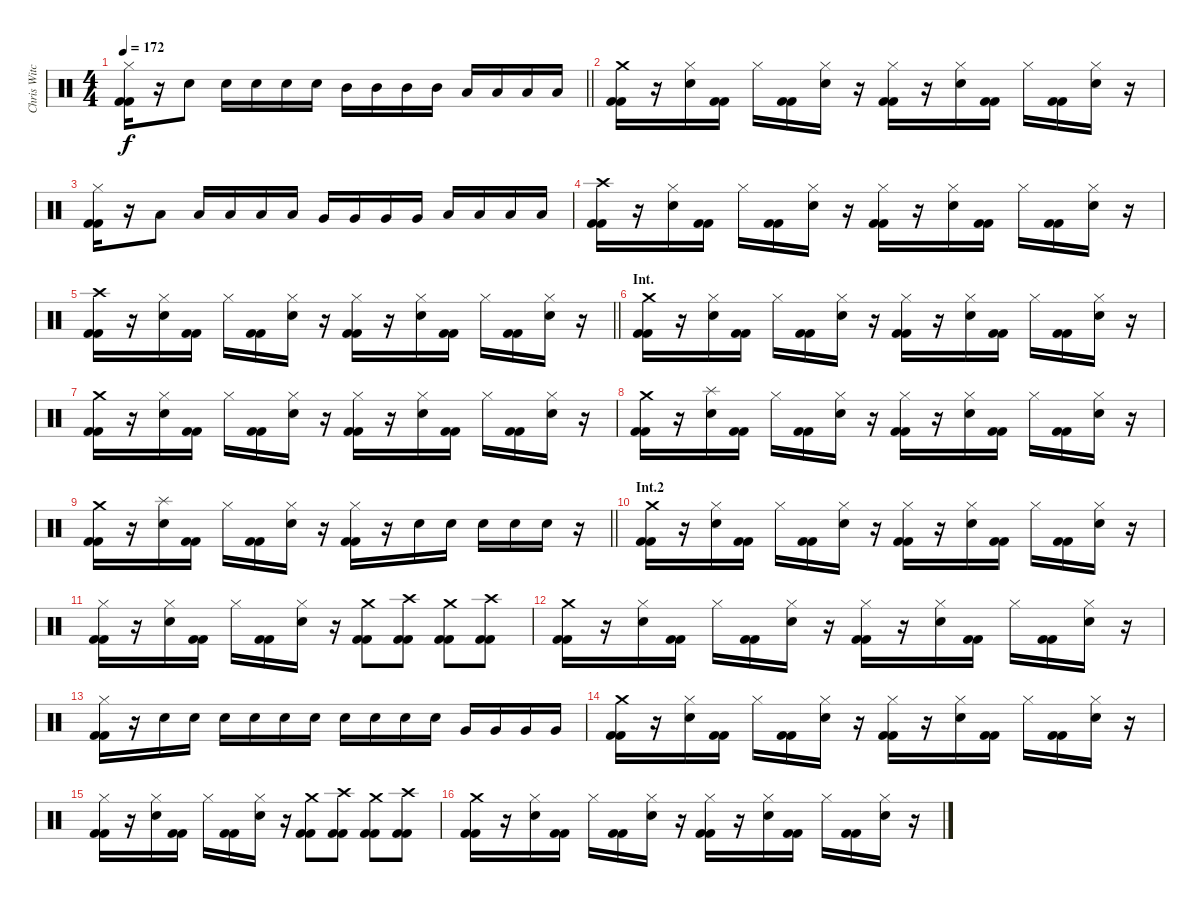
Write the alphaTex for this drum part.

\track ("Chris Witchhunter" "Chris Witc") {instrument percussion}
\staff {score}
\articulation defaults
\ts (4 4)
\tempo 172
\clef neutral
\barLineRight lightlight
\ks c
("Kick (hit) 2" "Kick (hit) 2" "Hi-Hat (closed)").16{dy f} r.16 "Snare (hit) 2".8 "Snare (hit) 2".16 "Snare (hit) 2".16 "Snare (hit) 2".16 "Snare (hit) 2".16 "Mid Tom (hit)".16 "Mid Tom (hit)".16 "Mid Tom (hit)".16 "Mid Tom (hit)".16 "Low Tom (hit)".16 "Low Tom (hit)".16 "Low Tom (hit)".16 "Low Tom (hit)".16 |
("Kick (hit) 2" "Kick (hit) 2" "Crash medium (hit)").16 r.16 ("Snare (hit) 2" "Hi-Hat (closed)").16 ("Kick (hit) 2" "Kick (hit) 2").16 "Hi-Hat (closed)".16 ("Kick (hit) 2" "Kick (hit) 2").16 ("Snare (hit) 2" "Hi-Hat (closed)").16 r.16 ("Kick (hit) 2" "Kick (hit) 2" "Hi-Hat (closed)").16 r.16 ("Snare (hit) 2" "Hi-Hat (closed)").16 ("Kick (hit) 2" "Kick (hit) 2").16 "Hi-Hat (closed)".16 ("Kick (hit) 2" "Kick (hit) 2").16 ("Snare (hit) 2" "Hi-Hat (closed)").16 r.16 |
("Kick (hit) 2" "Kick (hit) 2" "Hi-Hat (closed)").16 r.16 "Low Tom (hit)".8 "Low Tom (hit)".16 "Low Tom (hit)".16 "Low Tom (hit)".16 "Low Tom (hit)".16 "Very Low Tom (hit)".16 "Very Low Tom (hit)".16 "Very Low Tom (hit)".16 "Very Low Tom (hit)".16 "Low Floor Tom (hit)".16 "Low Floor Tom (hit)".16 "Low Floor Tom (hit)".16 "Low Floor Tom (hit)".16 |
("Kick (hit) 2" "Kick (hit) 2" "Crash high (hit)").16 r.16 ("Snare (hit) 2" "Hi-Hat (closed)").16 ("Kick (hit) 2" "Kick (hit) 2").16 "Hi-Hat (closed)".16 ("Kick (hit) 2" "Kick (hit) 2").16 ("Snare (hit) 2" "Hi-Hat (closed)").16 r.16 ("Kick (hit) 2" "Kick (hit) 2" "Hi-Hat (closed)").16 r.16 ("Snare (hit) 2" "Hi-Hat (closed)").16 ("Kick (hit) 2" "Kick (hit) 2").16 "Hi-Hat (closed)".16 ("Kick (hit) 2" "Kick (hit) 2").16 ("Snare (hit) 2" "Hi-Hat (closed)").16 r.16 |
\barLineRight lightlight
("Kick (hit) 2" "Kick (hit) 2" "Crash high (hit)").16 r.16 ("Snare (hit) 2" "Hi-Hat (closed)").16 ("Kick (hit) 2" "Kick (hit) 2").16 "Hi-Hat (closed)".16 ("Kick (hit) 2" "Kick (hit) 2").16 ("Snare (hit) 2" "Hi-Hat (closed)").16 r.16 ("Kick (hit) 2" "Kick (hit) 2" "Hi-Hat (closed)").16 r.16 ("Snare (hit) 2" "Hi-Hat (closed)").16 ("Kick (hit) 2" "Kick (hit) 2").16 "Hi-Hat (closed)".16 ("Kick (hit) 2" "Kick (hit) 2").16 ("Snare (hit) 2" "Hi-Hat (closed)").16 r.16 |
\section ("" "Int.")
("Kick (hit) 2" "Kick (hit) 2" "Crash medium (hit)").16 r.16 ("Snare (hit) 2" "Hi-Hat (closed)").16 ("Kick (hit) 2" "Kick (hit) 2").16 "Hi-Hat (closed)".16 ("Kick (hit) 2" "Kick (hit) 2").16 ("Snare (hit) 2" "Hi-Hat (closed)").16 r.16 ("Kick (hit) 2" "Kick (hit) 2" "Hi-Hat (closed)").16 r.16 ("Snare (hit) 2" "Hi-Hat (closed)").16 ("Kick (hit) 2" "Kick (hit) 2").16 "Hi-Hat (closed)".16 ("Kick (hit) 2" "Kick (hit) 2").16 ("Snare (hit) 2" "Hi-Hat (closed)").16 r.16 |
("Kick (hit) 2" "Kick (hit) 2" "Crash medium (hit)").16 r.16 ("Snare (hit) 2" "Hi-Hat (closed)").16 ("Kick (hit) 2" "Kick (hit) 2").16 "Hi-Hat (closed)".16 ("Kick (hit) 2" "Kick (hit) 2").16 ("Snare (hit) 2" "Hi-Hat (closed)").16 r.16 ("Kick (hit) 2" "Kick (hit) 2" "Hi-Hat (closed)").16 r.16 ("Snare (hit) 2" "Hi-Hat (closed)").16 ("Kick (hit) 2" "Kick (hit) 2").16 "Hi-Hat (closed)".16 ("Kick (hit) 2" "Kick (hit) 2").16 ("Snare (hit) 2" "Hi-Hat (closed)").16 r.16 |
("Kick (hit) 2" "Kick (hit) 2" "Crash medium (hit)").16 r.16 ("Snare (hit) 2" "Splash (hit)").16 ("Kick (hit) 2" "Kick (hit) 2").16 "Hi-Hat (closed)".16 ("Kick (hit) 2" "Kick (hit) 2").16 ("Snare (hit) 2" "Hi-Hat (closed)").16 r.16 ("Kick (hit) 2" "Kick (hit) 2" "Hi-Hat (closed)").16 r.16 ("Snare (hit) 2" "Hi-Hat (closed)").16 ("Kick (hit) 2" "Kick (hit) 2").16 "Hi-Hat (closed)".16 ("Kick (hit) 2" "Kick (hit) 2").16 ("Snare (hit) 2" "Hi-Hat (closed)").16 r.16 |
\barLineRight lightlight
("Kick (hit) 2" "Kick (hit) 2" "Crash medium (hit)").16 r.16 ("Snare (hit) 2" "Splash (hit)").16 ("Kick (hit) 2" "Kick (hit) 2").16 "Hi-Hat (closed)".16 ("Kick (hit) 2" "Kick (hit) 2").16 ("Snare (hit) 2" "Hi-Hat (closed)").16 r.16 ("Kick (hit) 2" "Kick (hit) 2" "Hi-Hat (closed)").16 r.16 "Snare (hit) 2".16 "Snare (hit) 2".16 "Snare (hit) 2".16 "Snare (hit) 2".16 "Snare (hit) 2".16 r.16 |
\section ("" "Int.2")
("Kick (hit) 2" "Kick (hit) 2" "Crash medium (hit)").16 r.16 ("Snare (hit) 2" "Hi-Hat (closed)").16 ("Kick (hit) 2" "Kick (hit) 2").16 "Hi-Hat (closed)".16 ("Kick (hit) 2" "Kick (hit) 2").16 ("Snare (hit) 2" "Hi-Hat (closed)").16 r.16 ("Kick (hit) 2" "Kick (hit) 2" "Hi-Hat (closed)").16 r.16 ("Snare (hit) 2" "Hi-Hat (closed)").16 ("Kick (hit) 2" "Kick (hit) 2").16 "Hi-Hat (closed)".16 ("Kick (hit) 2" "Kick (hit) 2").16 ("Snare (hit) 2" "Hi-Hat (closed)").16 r.16 |
("Kick (hit) 2" "Kick (hit) 2" "Hi-Hat (closed)").16 r.16 ("Snare (hit) 2" "Hi-Hat (closed)").16 ("Kick (hit) 2" "Kick (hit) 2").16 "Hi-Hat (closed)".16 ("Kick (hit) 2" "Kick (hit) 2").16 ("Snare (hit) 2" "Hi-Hat (closed)").16 r.16 ("Kick (hit) 2" "Kick (hit) 2" "Crash medium (hit)").8 ("Kick (hit) 2" "Kick (hit) 2" "Crash high (hit)").8 ("Kick (hit) 2" "Kick (hit) 2" "Crash medium (hit)").8 ("Kick (hit) 2" "Kick (hit) 2" "Crash high (hit)").8 |
("Kick (hit) 2" "Kick (hit) 2" "Crash medium (hit)").16 r.16 ("Snare (hit) 2" "Hi-Hat (closed)").16 ("Kick (hit) 2" "Kick (hit) 2").16 "Hi-Hat (closed)".16 ("Kick (hit) 2" "Kick (hit) 2").16 ("Snare (hit) 2" "Hi-Hat (closed)").16 r.16 ("Kick (hit) 2" "Kick (hit) 2" "Hi-Hat (closed)").16 r.16 ("Snare (hit) 2" "Hi-Hat (closed)").16 ("Kick (hit) 2" "Kick (hit) 2").16 "Hi-Hat (closed)".16 ("Kick (hit) 2" "Kick (hit) 2").16 ("Snare (hit) 2" "Hi-Hat (closed)").16 r.16 |
("Kick (hit) 2" "Kick (hit) 2" "Hi-Hat (closed)").16 r.16 "Snare (hit) 2".16 "Snare (hit) 2".16 "Snare (hit) 2".16 "Snare (hit) 2".16 "Snare (hit) 2".16 "Snare (hit) 2".16 "Snare (hit) 2".16 "Snare (hit) 2".16 "Snare (hit) 2".16 "Snare (hit) 2".16 "Very Low Tom (hit)".16 "Very Low Tom (hit)".16 "Very Low Tom (hit)".16 "Very Low Tom (hit)".16 |
("Kick (hit) 2" "Kick (hit) 2" "Crash medium (hit)").16 r.16 ("Snare (hit) 2" "Hi-Hat (closed)").16 ("Kick (hit) 2" "Kick (hit) 2").16 "Hi-Hat (closed)".16 ("Kick (hit) 2" "Kick (hit) 2").16 ("Snare (hit) 2" "Hi-Hat (closed)").16 r.16 ("Kick (hit) 2" "Kick (hit) 2" "Hi-Hat (closed)").16 r.16 ("Snare (hit) 2" "Hi-Hat (closed)").16 ("Kick (hit) 2" "Kick (hit) 2").16 "Hi-Hat (closed)".16 ("Kick (hit) 2" "Kick (hit) 2").16 ("Snare (hit) 2" "Hi-Hat (closed)").16 r.16 |
("Kick (hit) 2" "Kick (hit) 2" "Hi-Hat (closed)").16 r.16 ("Snare (hit) 2" "Hi-Hat (closed)").16 ("Kick (hit) 2" "Kick (hit) 2").16 "Hi-Hat (closed)".16 ("Kick (hit) 2" "Kick (hit) 2").16 ("Snare (hit) 2" "Hi-Hat (closed)").16 r.16 ("Kick (hit) 2" "Kick (hit) 2" "Crash medium (hit)").8 ("Kick (hit) 2" "Kick (hit) 2" "Crash high (hit)").8 ("Kick (hit) 2" "Kick (hit) 2" "Crash medium (hit)").8 ("Kick (hit) 2" "Kick (hit) 2" "Crash high (hit)").8 |
("Kick (hit) 2" "Kick (hit) 2" "Crash medium (hit)").16 r.16 ("Snare (hit) 2" "Hi-Hat (closed)").16 ("Kick (hit) 2" "Kick (hit) 2").16 "Hi-Hat (closed)".16 ("Kick (hit) 2" "Kick (hit) 2").16 ("Snare (hit) 2" "Hi-Hat (closed)").16 r.16 ("Kick (hit) 2" "Kick (hit) 2" "Hi-Hat (closed)").16 r.16 ("Snare (hit) 2" "Hi-Hat (closed)").16 ("Kick (hit) 2" "Kick (hit) 2").16 "Hi-Hat (closed)".16 ("Kick (hit) 2" "Kick (hit) 2").16 ("Snare (hit) 2" "Hi-Hat (closed)").16 r.16
